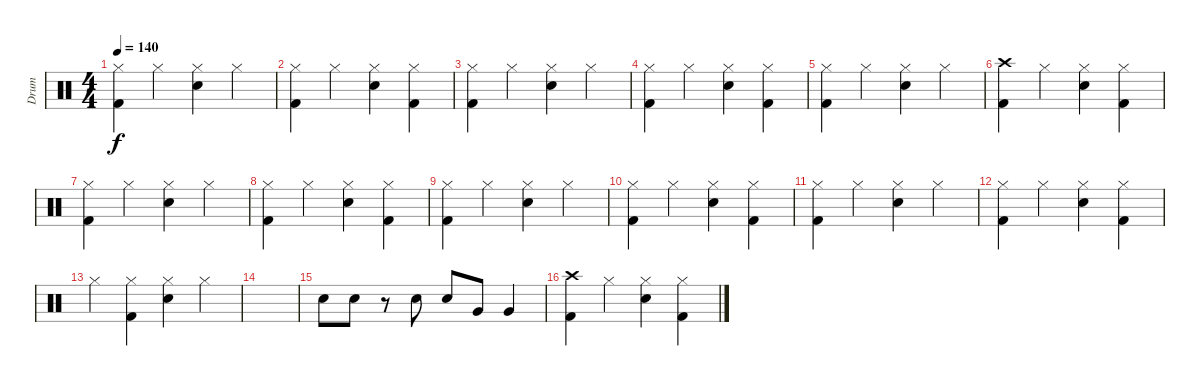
\track ("Drum" "Drum") {instrument percussion}
\staff {score}
\articulation defaults
\ts (4 4)
\tempo 140
\clef neutral
\ks c
("Hi-Hat (closed)" "Kick (hit) 2").4{dy f} "Hi-Hat (closed)".4 ("Hi-Hat (closed)" "Electric Snare (hit)").4 "Hi-Hat (closed)".4 |
("Hi-Hat (closed)" "Kick (hit) 2").4 "Hi-Hat (closed)".4 ("Hi-Hat (closed)" "Electric Snare (hit)").4 ("Hi-Hat (closed)" "Kick (hit) 2").4 |
("Hi-Hat (closed)" "Kick (hit) 2").4 "Hi-Hat (closed)".4 ("Hi-Hat (closed)" "Electric Snare (hit)").4 "Hi-Hat (closed)".4 |
("Hi-Hat (closed)" "Kick (hit) 2").4 "Hi-Hat (closed)".4 ("Hi-Hat (closed)" "Electric Snare (hit)").4 ("Hi-Hat (closed)" "Kick (hit) 2").4 |
("Hi-Hat (closed)" "Kick (hit) 2").4 "Hi-Hat (closed)".4 ("Hi-Hat (closed)" "Electric Snare (hit)").4 "Hi-Hat (closed)".4 |
("Crash high (hit)" "Kick (hit) 2").4 "Hi-Hat (closed)".4 ("Hi-Hat (closed)" "Electric Snare (hit)").4 ("Hi-Hat (closed)" "Kick (hit) 2").4 |
("Hi-Hat (closed)" "Kick (hit) 2").4 "Hi-Hat (closed)".4 ("Hi-Hat (closed)" "Electric Snare (hit)").4 "Hi-Hat (closed)".4 |
("Hi-Hat (closed)" "Kick (hit) 2").4 "Hi-Hat (closed)".4 ("Hi-Hat (closed)" "Electric Snare (hit)").4 ("Hi-Hat (closed)" "Kick (hit) 2").4 |
("Hi-Hat (closed)" "Kick (hit) 2").4 "Hi-Hat (closed)".4 ("Hi-Hat (closed)" "Electric Snare (hit)").4 "Hi-Hat (closed)".4 |
("Hi-Hat (closed)" "Kick (hit) 2").4 "Hi-Hat (closed)".4 ("Hi-Hat (closed)" "Electric Snare (hit)").4 ("Hi-Hat (closed)" "Kick (hit) 2").4 |
("Hi-Hat (closed)" "Kick (hit) 2").4 "Hi-Hat (closed)".4 ("Hi-Hat (closed)" "Electric Snare (hit)").4 "Hi-Hat (closed)".4 |
("Hi-Hat (closed)" "Kick (hit) 2").4 "Hi-Hat (closed)".4 ("Hi-Hat (closed)" "Electric Snare (hit)").4 ("Hi-Hat (closed)" "Kick (hit) 2").4 |
"Hi-Hat (closed)".4 ("Hi-Hat (closed)" "Kick (hit) 2").4 ("Hi-Hat (closed)" "Electric Snare (hit)").4 "Hi-Hat (closed)".4 |
|
"Electric Snare (hit)".8 "Electric Snare (hit)".8 r.8 "Electric Snare (hit)".8 "Electric Snare (hit)".8 "Very Low Tom (hit)".8 "Very Low Tom (hit)".4 |
("Crash high (hit)" "Kick (hit) 2").4 "Hi-Hat (closed)".4 ("Hi-Hat (closed)" "Electric Snare (hit)").4 ("Hi-Hat (closed)" "Kick (hit) 2").4
